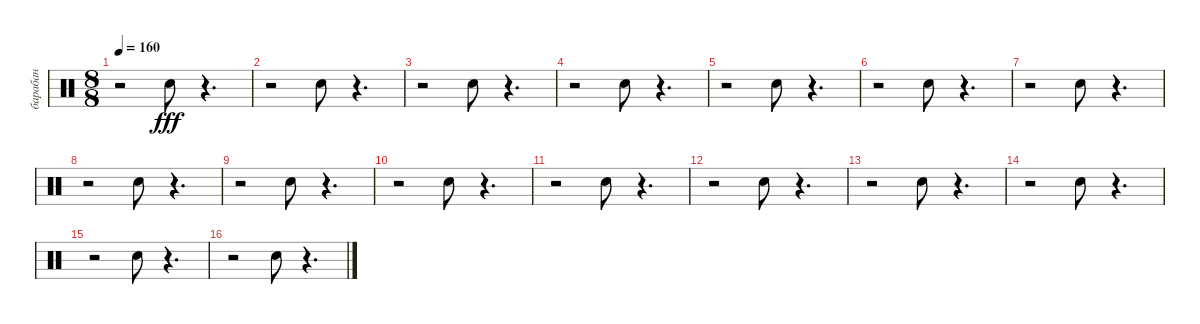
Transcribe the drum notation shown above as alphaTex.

\track ("барабан" "барабан") {instrument percussion}
\staff {score}
\articulation defaults
\ts (8 8)
\tempo 160
\clef neutral
\ks c
r.2{dy fff} "Snare (hit) 2".8 r.4{d} |
r.2 "Snare (hit) 2".8 r.4{d} |
r.2 "Snare (hit) 2".8 r.4{d} |
r.2 "Snare (hit) 2".8 r.4{d} |
r.2 "Snare (hit) 2".8 r.4{d} |
r.2 "Snare (hit) 2".8 r.4{d} |
r.2 "Snare (hit) 2".8 r.4{d} |
r.2 "Snare (hit) 2".8 r.4{d} |
r.2 "Snare (hit) 2".8 r.4{d} |
r.2 "Snare (hit) 2".8 r.4{d} |
r.2 "Snare (hit) 2".8 r.4{d} |
r.2 "Snare (hit) 2".8 r.4{d} |
r.2 "Snare (hit) 2".8 r.4{d} |
r.2 "Snare (hit) 2".8 r.4{d} |
r.2 "Snare (hit) 2".8 r.4{d} |
r.2 "Snare (hit) 2".8{volume 16} r.4{d}
